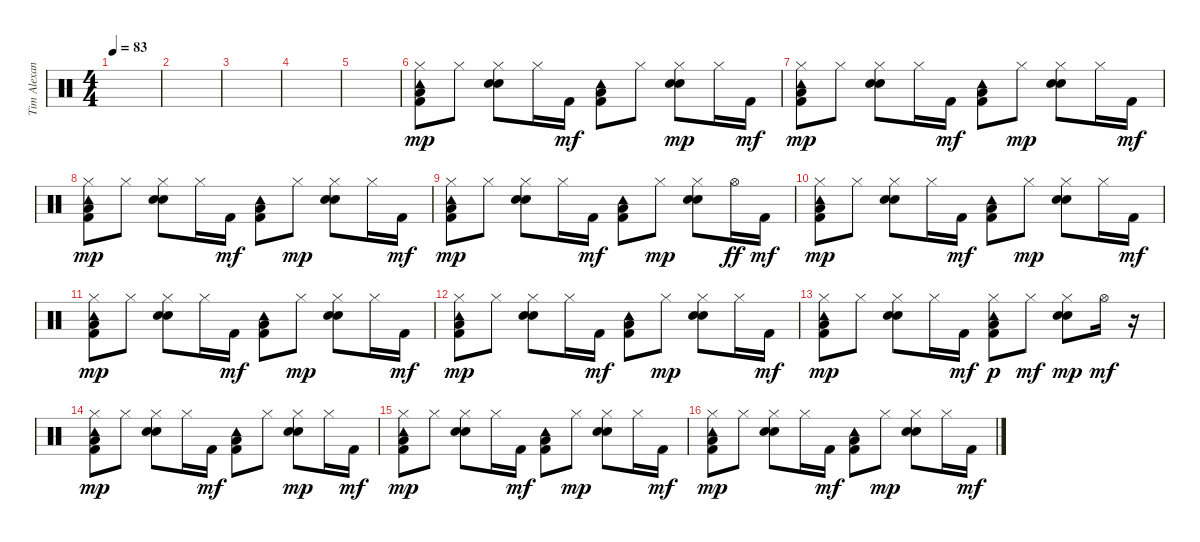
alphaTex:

\track ("Tim Alexander" "Tim Alexan") {instrument percussion}
\staff {score}
\articulation defaults
\ts (4 4)
\tempo 83
\clef neutral
\ks c
|
|
|
|
|
("Tambourine (hit)" "Kick (hit) 2" "Low Floor Tom (hit)" "Hi-Hat (closed)").8{dy mp} "Hi-Hat (closed)".8 ("Hand Clap (hit)" "Electric Snare (hit)" "Hi-Hat (closed)").8 "Hi-Hat (closed)".16 "Kick (hit) 2".16{dy mf} ("Tambourine (hit)" "Kick (hit) 2" "Low Floor Tom (hit)").8 "Hi-Hat (closed)".8 ("Hand Clap (hit)" "Electric Snare (hit)" "Hi-Hat (closed)").8{dy mp} "Hi-Hat (closed)".16 "Kick (hit) 2".16{dy mf} |
("Tambourine (hit)" "Kick (hit) 2" "Low Floor Tom (hit)" "Hi-Hat (closed)").8{dy mp} "Hi-Hat (closed)".8 ("Hand Clap (hit)" "Electric Snare (hit)" "Hi-Hat (closed)").8 "Hi-Hat (closed)".16 "Kick (hit) 2".16{dy mf} ("Tambourine (hit)" "Kick (hit) 2" "Low Floor Tom (hit)").8 "Hi-Hat (closed)".8{dy mp} ("Hand Clap (hit)" "Electric Snare (hit)" "Hi-Hat (closed)").8 "Hi-Hat (closed)".16 "Kick (hit) 2".16{dy mf} |
("Tambourine (hit)" "Kick (hit) 2" "Low Floor Tom (hit)" "Hi-Hat (closed)").8{dy mp} "Hi-Hat (closed)".8 ("Hand Clap (hit)" "Electric Snare (hit)" "Hi-Hat (closed)").8 "Hi-Hat (closed)".16 "Kick (hit) 2".16{dy mf} ("Tambourine (hit)" "Kick (hit) 2" "Low Floor Tom (hit)").8 "Hi-Hat (closed)".8{dy mp} ("Hand Clap (hit)" "Electric Snare (hit)" "Hi-Hat (closed)").8 "Hi-Hat (closed)".16 "Kick (hit) 2".16{dy mf} |
("Tambourine (hit)" "Kick (hit) 2" "Low Floor Tom (hit)" "Hi-Hat (closed)").8{dy mp} "Hi-Hat (closed)".8 ("Hand Clap (hit)" "Electric Snare (hit)" "Hi-Hat (closed)").8 "Hi-Hat (closed)".16 "Kick (hit) 2".16{dy mf} ("Tambourine (hit)" "Kick (hit) 2" "Low Floor Tom (hit)").8 "Hi-Hat (closed)".8{dy mp} ("Hand Clap (hit)" "Electric Snare (hit)" "Hi-Hat (closed)").8 "Hi-Hat (open)".16{dy ff} "Kick (hit) 2".16{dy mf} |
("Tambourine (hit)" "Kick (hit) 2" "Low Floor Tom (hit)" "Hi-Hat (closed)").8{dy mp} "Hi-Hat (closed)".8 ("Hand Clap (hit)" "Electric Snare (hit)" "Hi-Hat (closed)").8 "Hi-Hat (closed)".16 "Kick (hit) 2".16{dy mf} ("Tambourine (hit)" "Kick (hit) 2" "Low Floor Tom (hit)").8 "Hi-Hat (closed)".8{dy mp} ("Hand Clap (hit)" "Electric Snare (hit)" "Hi-Hat (closed)").8 "Hi-Hat (closed)".16 "Kick (hit) 2".16{dy mf} |
("Tambourine (hit)" "Kick (hit) 2" "Low Floor Tom (hit)" "Hi-Hat (closed)").8{dy mp} "Hi-Hat (closed)".8 ("Hand Clap (hit)" "Electric Snare (hit)" "Hi-Hat (closed)").8 "Hi-Hat (closed)".16 "Kick (hit) 2".16{dy mf} ("Tambourine (hit)" "Kick (hit) 2" "Low Floor Tom (hit)").8 "Hi-Hat (closed)".8{dy mp} ("Hand Clap (hit)" "Electric Snare (hit)" "Hi-Hat (closed)").8 "Hi-Hat (closed)".16 "Kick (hit) 2".16{dy mf} |
("Tambourine (hit)" "Kick (hit) 2" "Low Floor Tom (hit)" "Hi-Hat (closed)").8{dy mp} "Hi-Hat (closed)".8 ("Hand Clap (hit)" "Electric Snare (hit)" "Hi-Hat (closed)").8 "Hi-Hat (closed)".16 "Kick (hit) 2".16{dy mf} ("Tambourine (hit)" "Kick (hit) 2" "Low Floor Tom (hit)").8 "Hi-Hat (closed)".8{dy mp} ("Hand Clap (hit)" "Electric Snare (hit)" "Hi-Hat (closed)").8 "Hi-Hat (closed)".16 "Kick (hit) 2".16{dy mf} |
("Tambourine (hit)" "Kick (hit) 2" "Low Floor Tom (hit)" "Hi-Hat (closed)").8{dy mp} "Hi-Hat (closed)".8 ("Hand Clap (hit)" "Electric Snare (hit)" "Hi-Hat (closed)").8 "Hi-Hat (closed)".16 "Kick (hit) 2".16{dy mf} ("Tambourine (hit)" "Kick (hit) 2" "Low Floor Tom (hit)" "Hi-Hat (closed)").8{dy p} "Hi-Hat (closed)".8{dy mf} ("Hand Clap (hit)" "Electric Snare (hit)" "Hi-Hat (closed)").8{dy mp} "Hi-Hat (open)".16{dy mf} r.16 |
("Tambourine (hit)" "Kick (hit) 2" "Low Floor Tom (hit)" "Hi-Hat (closed)").8{dy mp} "Hi-Hat (closed)".8 ("Hand Clap (hit)" "Electric Snare (hit)" "Hi-Hat (closed)").8 "Hi-Hat (closed)".16 "Kick (hit) 2".16{dy mf} ("Tambourine (hit)" "Kick (hit) 2" "Low Floor Tom (hit)").8 "Hi-Hat (closed)".8 ("Hand Clap (hit)" "Electric Snare (hit)" "Hi-Hat (closed)").8{dy mp} "Hi-Hat (closed)".16 "Kick (hit) 2".16{dy mf} |
("Tambourine (hit)" "Kick (hit) 2" "Low Floor Tom (hit)" "Hi-Hat (closed)").8{dy mp} "Hi-Hat (closed)".8 ("Hand Clap (hit)" "Electric Snare (hit)" "Hi-Hat (closed)").8 "Hi-Hat (closed)".16 "Kick (hit) 2".16{dy mf} ("Tambourine (hit)" "Kick (hit) 2" "Low Floor Tom (hit)").8 "Hi-Hat (closed)".8{dy mp} ("Hand Clap (hit)" "Electric Snare (hit)" "Hi-Hat (closed)").8 "Hi-Hat (closed)".16 "Kick (hit) 2".16{dy mf} |
("Tambourine (hit)" "Kick (hit) 2" "Low Floor Tom (hit)" "Hi-Hat (closed)").8{dy mp} "Hi-Hat (closed)".8 ("Hand Clap (hit)" "Electric Snare (hit)" "Hi-Hat (closed)").8 "Hi-Hat (closed)".16 "Kick (hit) 2".16{dy mf} ("Tambourine (hit)" "Kick (hit) 2" "Low Floor Tom (hit)").8 "Hi-Hat (closed)".8{dy mp} ("Hand Clap (hit)" "Electric Snare (hit)" "Hi-Hat (closed)").8 "Hi-Hat (closed)".16 "Kick (hit) 2".16{dy mf}
